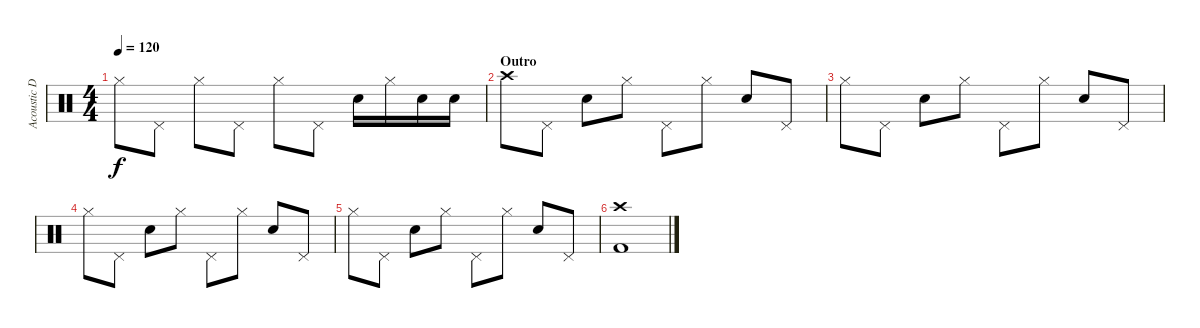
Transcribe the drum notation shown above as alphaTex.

\track ("Acoustic Drums" "Acoustic D") {instrument percussion}
\staff {score}
\articulation defaults
\ts (4 4)
\tempo 120
\clef neutral
\ks c "Hi-Hat (closed)".8{dy f} "Pedal Hi-Hat (hit)".8 "Hi-Hat (closed)".8 "Pedal Hi-Hat (hit)".8 "Hi-Hat (closed)".8 "Pedal Hi-Hat (hit)".8 "Electric Snare (hit)".16 "Hi-Hat (closed)".16 "Electric Snare (hit)".16 "Snare (hit) 2".16
|
\section ("" "Outro")
"Crash high (hit)".8 "Pedal Hi-Hat (hit)".8 "Electric Snare (hit)".8 "Hi-Hat (closed)".8 "Pedal Hi-Hat (hit)".8 "Hi-Hat (closed)".8 "Electric Snare (hit)".8 "Pedal Hi-Hat (hit)".8 |
"Hi-Hat (closed)".8 "Pedal Hi-Hat (hit)".8 "Electric Snare (hit)".8 "Hi-Hat (closed)".8 "Pedal Hi-Hat (hit)".8 "Hi-Hat (closed)".8 "Electric Snare (hit)".8 "Pedal Hi-Hat (hit)".8 |
"Hi-Hat (closed)".8 "Pedal Hi-Hat (hit)".8 "Electric Snare (hit)".8 "Hi-Hat (closed)".8 "Pedal Hi-Hat (hit)".8 "Hi-Hat (closed)".8 "Electric Snare (hit)".8 "Pedal Hi-Hat (hit)".8 |
"Hi-Hat (closed)".8 "Pedal Hi-Hat (hit)".8 "Electric Snare (hit)".8 "Hi-Hat (closed)".8 "Pedal Hi-Hat (hit)".8 "Hi-Hat (closed)".8 "Electric Snare (hit)".8 "Pedal Hi-Hat (hit)".8 |
("Kick (hit) 2" "Crash high (hit)").1
